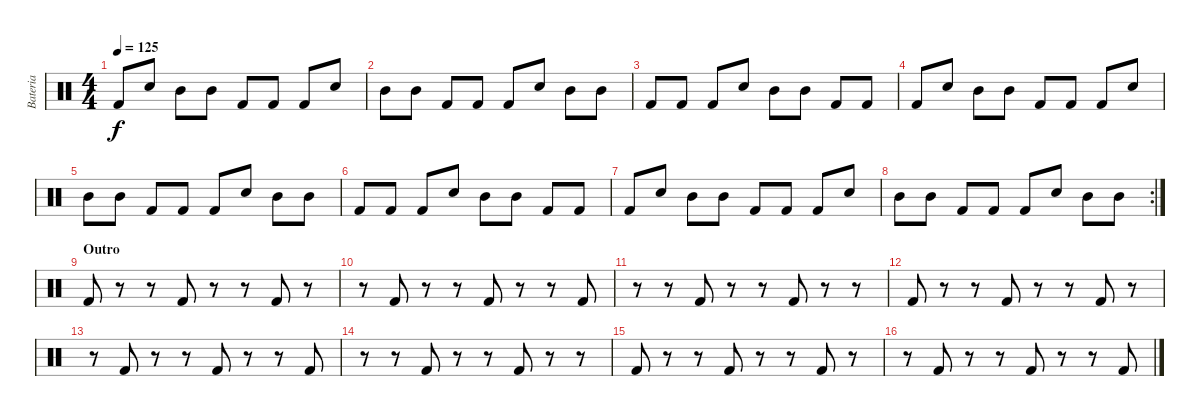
\track ("Bateria" "Bateria") {instrument percussion}
\staff {score}
\articulation defaults
\ts (4 4)
\tempo 125
\clef neutral
\ks c "Kick (hit) 2".8{dy f} "Snare (hit) 2".8 "Mid Tom (hit)".8 "Mid Tom (hit)".8 "Kick (hit) 2".8 "Kick (hit) 2".8 "Kick (hit) 2".8 "Snare (hit) 2".8
|
"Mid Tom (hit)".8 "Mid Tom (hit)".8 "Kick (hit) 2".8 "Kick (hit) 2".8 "Kick (hit) 2".8 "Snare (hit) 2".8 "Mid Tom (hit)".8 "Mid Tom (hit)".8 |
"Kick (hit) 2".8 "Kick (hit) 2".8 "Kick (hit) 2".8 "Snare (hit) 2".8 "Mid Tom (hit)".8 "Mid Tom (hit)".8 "Kick (hit) 2".8 "Kick (hit) 2".8 |
"Kick (hit) 2".8 "Snare (hit) 2".8 "Mid Tom (hit)".8 "Mid Tom (hit)".8 "Kick (hit) 2".8 "Kick (hit) 2".8 "Kick (hit) 2".8 "Snare (hit) 2".8 |
"Mid Tom (hit)".8 "Mid Tom (hit)".8 "Kick (hit) 2".8 "Kick (hit) 2".8 "Kick (hit) 2".8 "Snare (hit) 2".8 "Mid Tom (hit)".8 "Mid Tom (hit)".8 |
"Kick (hit) 2".8 "Kick (hit) 2".8 "Kick (hit) 2".8 "Snare (hit) 2".8 "Mid Tom (hit)".8 "Mid Tom (hit)".8 "Kick (hit) 2".8 "Kick (hit) 2".8 |
"Kick (hit) 2".8 "Snare (hit) 2".8 "Mid Tom (hit)".8 "Mid Tom (hit)".8 "Kick (hit) 2".8 "Kick (hit) 2".8 "Kick (hit) 2".8 "Snare (hit) 2".8 |
\rc 2 "Mid Tom (hit)".8 "Mid Tom (hit)".8 "Kick (hit) 2".8 "Kick (hit) 2".8 "Kick (hit) 2".8 "Snare (hit) 2".8 "Mid Tom (hit)".8 "Mid Tom (hit)".8
|
\section ("" "Outro")
"Kick (hit) 2".8 r.8 r.8 "Kick (hit) 2".8 r.8 r.8 "Kick (hit) 2".8 r.8 |
r.8 "Kick (hit) 2".8 r.8 r.8 "Kick (hit) 2".8 r.8 r.8 "Kick (hit) 2".8 |
r.8 r.8 "Kick (hit) 2".8 r.8 r.8 "Kick (hit) 2".8 r.8 r.8 |
"Kick (hit) 2".8 r.8 r.8 "Kick (hit) 2".8 r.8 r.8 "Kick (hit) 2".8 r.8 |
r.8 "Kick (hit) 2".8 r.8 r.8 "Kick (hit) 2".8 r.8 r.8 "Kick (hit) 2".8 |
r.8 r.8 "Kick (hit) 2".8 r.8 r.8 "Kick (hit) 2".8 r.8 r.8 |
"Kick (hit) 2".8 r.8 r.8 "Kick (hit) 2".8 r.8 r.8 "Kick (hit) 2".8 r.8 |
r.8 "Kick (hit) 2".8 r.8 r.8 "Kick (hit) 2".8 r.8 r.8 "Kick (hit) 2".8
